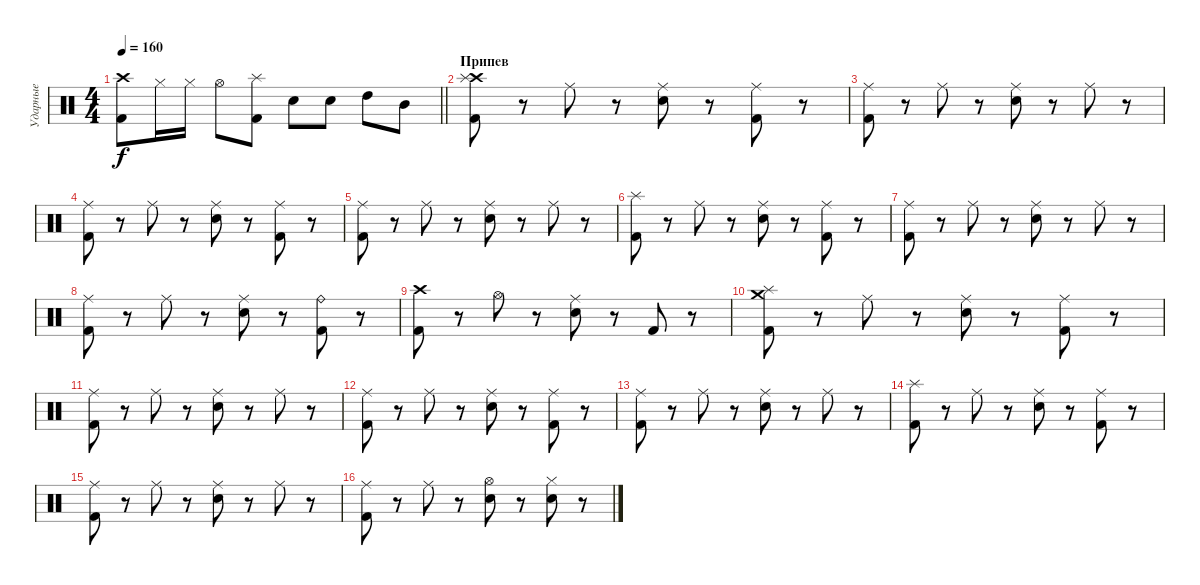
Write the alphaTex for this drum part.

\track ("Ударные" "Ударные") {instrument percussion}
\staff {score}
\articulation defaults
\ts (4 4)
\tempo 160
\clef neutral
\barLineRight lightlight
\ks c
("Kick (hit) 2" "Crash high (hit)").8{dy f} "Hi-Hat (closed)".16 "Hi-Hat (closed)".16 "Hi-Hat (open)".8 ("Kick (hit) 2" "Splash (hit)").8 "Electric Snare (hit)".8 "Electric Snare (hit)".8 "High Tom (hit)".8 "Mid Tom (hit)".8 |
\section ("" "Припев")
("Kick (hit) 2" "Crash high (hit)" "Splash (hit)").8 r.8 "Ride (middle)".8 r.8 ("Electric Snare (hit)" "Ride (middle)").8 r.8 ("Kick (hit) 2" "Ride (middle)").8 r.8 |
("Kick (hit) 2" "Ride (middle)").8 r.8 "Ride (middle)".8 r.8 ("Electric Snare (hit)" "Ride (middle)").8 r.8 "Ride (middle)".8 r.8 |
("Kick (hit) 2" "Ride (middle)").8 r.8 "Ride (middle)".8 r.8 ("Electric Snare (hit)" "Ride (middle)").8 r.8 ("Kick (hit) 2" "Ride (middle)").8 r.8 |
("Kick (hit) 2" "Ride (middle)").8 r.8 "Ride (middle)".8 r.8 ("Electric Snare (hit)" "Ride (middle)").8 r.8 "Ride (middle)".8 r.8 |
("Kick (hit) 2" "Splash (hit)").8 r.8 "Ride (middle)".8 r.8 ("Electric Snare (hit)" "Ride (middle)").8 r.8 ("Kick (hit) 2" "Ride (middle)").8 r.8 |
("Kick (hit) 2" "Ride (middle)").8 r.8 "Ride (middle)".8 r.8 ("Electric Snare (hit)" "Ride (middle)").8 r.8 "Ride (middle)".8 r.8 |
("Kick (hit) 2" "Ride (middle)").8 r.8 "Ride (middle)".8 r.8 ("Electric Snare (hit)" "Ride (middle)").8 r.8 ("Kick (hit) 2" "Ride (bell)").8 r.8 |
("Kick (hit) 2" "Crash high (hit)").8 r.8 "Hi-Hat (open)".8 r.8 ("Electric Snare (hit)" "Ride (middle)").8 r.8 "Kick (hit) 2".8 r.8 |
("Kick (hit) 2" "Crash medium (hit)" "Splash (hit)").8 r.8 "Ride (middle)".8 r.8 ("Electric Snare (hit)" "Ride (middle)").8 r.8 ("Kick (hit) 2" "Ride (middle)").8 r.8 |
("Kick (hit) 2" "Ride (middle)").8 r.8 "Ride (middle)".8 r.8 ("Electric Snare (hit)" "Ride (middle)").8 r.8 "Ride (middle)".8 r.8 |
("Kick (hit) 2" "Ride (middle)").8 r.8 "Ride (middle)".8 r.8 ("Electric Snare (hit)" "Ride (middle)").8 r.8 ("Kick (hit) 2" "Ride (middle)").8 r.8 |
("Kick (hit) 2" "Ride (middle)").8 r.8 "Ride (middle)".8 r.8 ("Electric Snare (hit)" "Ride (middle)").8 r.8 "Ride (middle)".8 r.8 |
("Kick (hit) 2" "Splash (hit)").8 r.8 "Ride (middle)".8 r.8 ("Electric Snare (hit)" "Ride (middle)").8 r.8 ("Kick (hit) 2" "Ride (middle)").8 r.8 |
("Kick (hit) 2" "Ride (middle)").8 r.8 "Ride (middle)".8 r.8 ("Electric Snare (hit)" "Ride (middle)").8 r.8 "Ride (middle)".8 r.8 |
("Kick (hit) 2" "Ride (middle)").8 r.8 "Ride (middle)".8 r.8 ("Electric Snare (hit)" "Hi-Hat (open)").8 r.8 ("Electric Snare (hit)" "Hi-Hat (closed)").8 r.8
